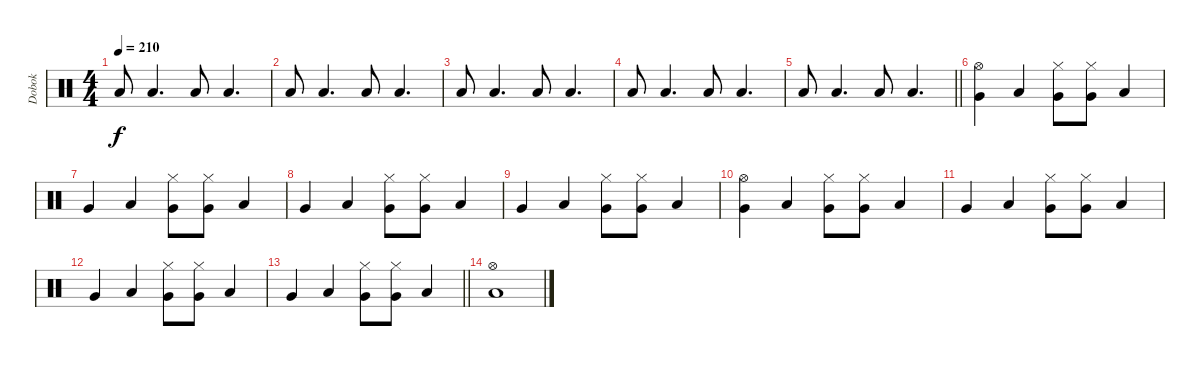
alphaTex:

\track ("Dobok" "Dobok") {instrument percussion}
\staff {score}
\articulation defaults
\ts (4 4)
\tempo 210
\clef neutral
\ks c "Low Tom (hit)".8{dy f} "Low Tom (hit)".4{d} "Low Tom (hit)".8 "Low Tom (hit)".4{d}
|
"Low Floor Tom (hit)".8 "Low Floor Tom (hit)".4{d} "Low Floor Tom (hit)".8 "Low Floor Tom (hit)".4{d} |
"Low Tom (hit)".8 "Low Tom (hit)".4{d} "Low Tom (hit)".8 "Low Tom (hit)".4{d} |
"Low Floor Tom (hit)".8 "Low Floor Tom (hit)".4{d} "Low Floor Tom (hit)".8 "Low Floor Tom (hit)".4{d} |
\barLineRight lightlight "Low Tom (hit)".8 "Low Tom (hit)".4{d} "Low Tom (hit)".8 "Low Tom (hit)".4{d}
|
("Hi-Hat (open)" "Very Low Tom (hit)").4 "Low Tom (hit)".4 ("Hi-Hat (closed)" "Very Low Tom (hit)").8 ("Hi-Hat (closed)" "Very Low Tom (hit)").8 "Low Tom (hit)".4 |
"Very Low Tom (hit)".4 "Low Tom (hit)".4 ("Hi-Hat (closed)" "Very Low Tom (hit)").8 ("Hi-Hat (closed)" "Very Low Tom (hit)").8 "Low Tom (hit)".4 |
"Very Low Tom (hit)".4 "Low Tom (hit)".4 ("Hi-Hat (closed)" "Very Low Tom (hit)").8 ("Hi-Hat (closed)" "Very Low Tom (hit)").8 "Low Tom (hit)".4 |
"Very Low Tom (hit)".4 "Low Tom (hit)".4 ("Hi-Hat (closed)" "Very Low Tom (hit)").8 ("Hi-Hat (closed)" "Very Low Tom (hit)").8 "Low Tom (hit)".4 |
("Hi-Hat (open)" "Very Low Tom (hit)").4 "Low Tom (hit)".4 ("Hi-Hat (closed)" "Very Low Tom (hit)").8 ("Hi-Hat (closed)" "Very Low Tom (hit)").8 "Low Tom (hit)".4 |
"Very Low Tom (hit)".4 "Low Tom (hit)".4 ("Hi-Hat (closed)" "Very Low Tom (hit)").8 ("Hi-Hat (closed)" "Very Low Tom (hit)").8 "Low Tom (hit)".4 |
"Very Low Tom (hit)".4 "Low Tom (hit)".4 ("Hi-Hat (closed)" "Very Low Tom (hit)").8 ("Hi-Hat (closed)" "Very Low Tom (hit)").8 "Low Tom (hit)".4 |
\barLineRight lightlight "Very Low Tom (hit)".4 "Low Tom (hit)".4
("Hi-Hat (closed)" "Very Low Tom (hit)").8 ("Hi-Hat (closed)" "Very Low Tom (hit)").8 "Low Tom (hit)".4 |
("Hi-Hat (open)" "Low Tom (hit)").1
